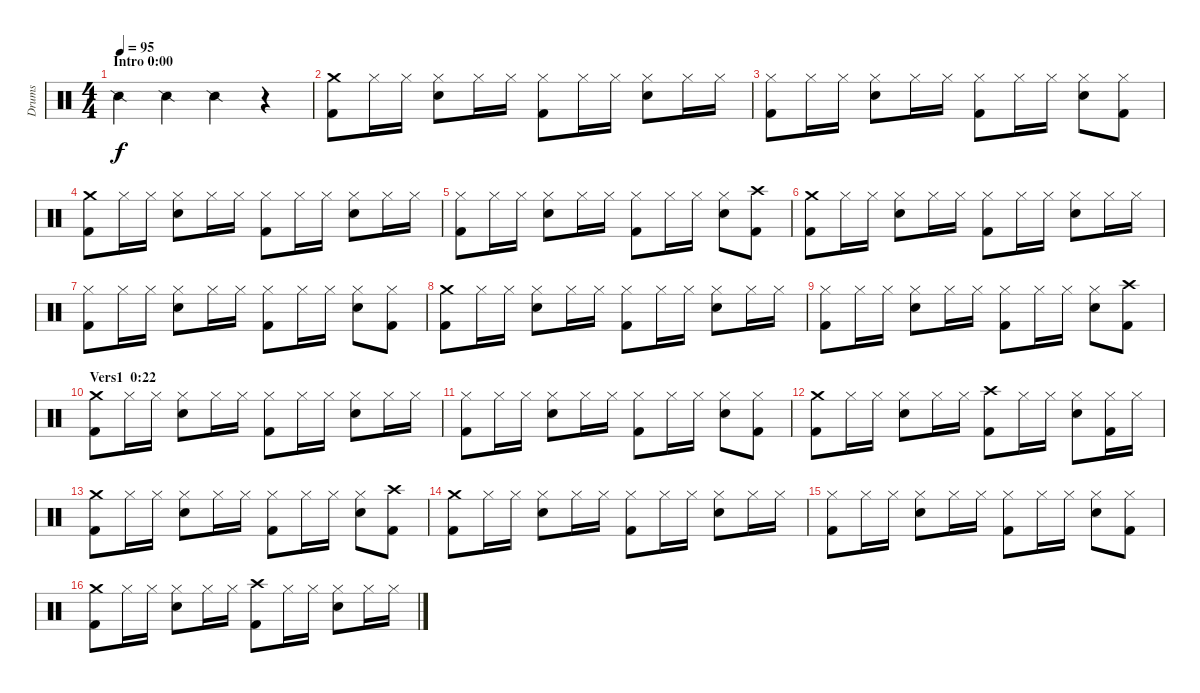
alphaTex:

\track ("Drums" "Drums") {instrument percussion}
\staff {score}
\articulation defaults
\ts (4 4)
\section ("" "Intro 0:00")
\tempo 95
\clef neutral
\ks c "Snare (side stick) 2".4{dy f} "Snare (side stick) 2".4 "Snare (side stick) 2".4
r.4 |
("Crash medium (hit)" "Kick (hit) 2").8 "Hi-Hat (closed)".16 "Hi-Hat (closed)".16 ("Hi-Hat (closed)" "Snare (hit) 2").8 "Hi-Hat (closed)".16 "Hi-Hat (closed)".16 ("Hi-Hat (closed)" "Kick (hit) 2").8 "Hi-Hat (closed)".16 "Hi-Hat (closed)".16 ("Hi-Hat (closed)" "Snare (hit) 2").8 "Hi-Hat (closed)".16 "Hi-Hat (closed)".16 |
("Hi-Hat (closed)" "Kick (hit) 2").8 "Hi-Hat (closed)".16 "Hi-Hat (closed)".16 ("Hi-Hat (closed)" "Snare (hit) 2").8 "Hi-Hat (closed)".16 "Hi-Hat (closed)".16 ("Hi-Hat (closed)" "Kick (hit) 2").8 "Hi-Hat (closed)".16 "Hi-Hat (closed)".16 ("Hi-Hat (closed)" "Snare (hit) 2").8 ("Hi-Hat (closed)" "Kick (hit) 2").8 |
("Crash medium (hit)" "Kick (hit) 2").8 "Hi-Hat (closed)".16 "Hi-Hat (closed)".16 ("Hi-Hat (closed)" "Snare (hit) 2").8 "Hi-Hat (closed)".16 "Hi-Hat (closed)".16 ("Hi-Hat (closed)" "Kick (hit) 2").8 "Hi-Hat (closed)".16 "Hi-Hat (closed)".16 ("Hi-Hat (closed)" "Snare (hit) 2").8 "Hi-Hat (closed)".16 "Hi-Hat (closed)".16 |
("Hi-Hat (closed)" "Kick (hit) 2").8 "Hi-Hat (closed)".16 "Hi-Hat (closed)".16 ("Hi-Hat (closed)" "Snare (hit) 2").8 "Hi-Hat (closed)".16 "Hi-Hat (closed)".16 ("Hi-Hat (closed)" "Kick (hit) 2").8 "Hi-Hat (closed)".16 "Hi-Hat (closed)".16 ("Hi-Hat (closed)" "Snare (hit) 2").8 ("Crash high (hit)" "Kick (hit) 2").8 |
("Crash medium (hit)" "Kick (hit) 2").8 "Hi-Hat (closed)".16 "Hi-Hat (closed)".16 ("Hi-Hat (closed)" "Snare (hit) 2").8 "Hi-Hat (closed)".16 "Hi-Hat (closed)".16 ("Hi-Hat (closed)" "Kick (hit) 2").8 "Hi-Hat (closed)".16 "Hi-Hat (closed)".16 ("Hi-Hat (closed)" "Snare (hit) 2").8 "Hi-Hat (closed)".16 "Hi-Hat (closed)".16 |
("Hi-Hat (closed)" "Kick (hit) 2").8 "Hi-Hat (closed)".16 "Hi-Hat (closed)".16 ("Hi-Hat (closed)" "Snare (hit) 2").8 "Hi-Hat (closed)".16 "Hi-Hat (closed)".16 ("Hi-Hat (closed)" "Kick (hit) 2").8 "Hi-Hat (closed)".16 "Hi-Hat (closed)".16 ("Hi-Hat (closed)" "Snare (hit) 2").8 ("Hi-Hat (closed)" "Kick (hit) 2").8 |
("Crash medium (hit)" "Kick (hit) 2").8 "Hi-Hat (closed)".16 "Hi-Hat (closed)".16 ("Hi-Hat (closed)" "Snare (hit) 2").8 "Hi-Hat (closed)".16 "Hi-Hat (closed)".16 ("Hi-Hat (closed)" "Kick (hit) 2").8 "Hi-Hat (closed)".16 "Hi-Hat (closed)".16 ("Hi-Hat (closed)" "Snare (hit) 2").8 "Hi-Hat (closed)".16 "Hi-Hat (closed)".16 |
("Hi-Hat (closed)" "Kick (hit) 2").8 "Hi-Hat (closed)".16 "Hi-Hat (closed)".16 ("Hi-Hat (closed)" "Snare (hit) 2").8 "Hi-Hat (closed)".16 "Hi-Hat (closed)".16 ("Hi-Hat (closed)" "Kick (hit) 2").8 "Hi-Hat (closed)".16 "Hi-Hat (closed)".16 ("Hi-Hat (closed)" "Snare (hit) 2").8 ("Crash high (hit)" "Kick (hit) 2").8 |
\section ("" "Vers1  0:22")
("Crash medium (hit)" "Kick (hit) 2").8 "Hi-Hat (closed)".16 "Hi-Hat (closed)".16 ("Hi-Hat (closed)" "Snare (hit) 2").8 "Hi-Hat (closed)".16 "Hi-Hat (closed)".16 ("Hi-Hat (closed)" "Kick (hit) 2").8 "Hi-Hat (closed)".16 "Hi-Hat (closed)".16 ("Hi-Hat (closed)" "Snare (hit) 2").8 "Hi-Hat (closed)".16 "Hi-Hat (closed)".16 |
("Hi-Hat (closed)" "Kick (hit) 2").8 "Hi-Hat (closed)".16 "Hi-Hat (closed)".16 ("Hi-Hat (closed)" "Snare (hit) 2").8 "Hi-Hat (closed)".16 "Hi-Hat (closed)".16 ("Hi-Hat (closed)" "Kick (hit) 2").8 "Hi-Hat (closed)".16 "Hi-Hat (closed)".16 ("Hi-Hat (closed)" "Snare (hit) 2").8 ("Hi-Hat (closed)" "Kick (hit) 2").8 |
("Crash medium (hit)" "Kick (hit) 2").8 "Hi-Hat (closed)".16 "Hi-Hat (closed)".16 ("Hi-Hat (closed)" "Snare (hit) 2").8 "Hi-Hat (closed)".16 "Hi-Hat (closed)".16 ("Crash high (hit)" "Kick (hit) 2").8 "Hi-Hat (closed)".16 "Hi-Hat (closed)".16 ("Hi-Hat (closed)" "Snare (hit) 2").8 ("Hi-Hat (closed)" "Kick (hit) 2").16 "Hi-Hat (closed)".16 |
("Crash medium (hit)" "Kick (hit) 2").8 "Hi-Hat (closed)".16 "Hi-Hat (closed)".16 ("Hi-Hat (closed)" "Snare (hit) 2").8 "Hi-Hat (closed)".16 "Hi-Hat (closed)".16 ("Hi-Hat (closed)" "Kick (hit) 2").8 "Hi-Hat (closed)".16 "Hi-Hat (closed)".16 ("Hi-Hat (closed)" "Snare (hit) 2").8 ("Crash high (hit)" "Kick (hit) 2").8 |
("Crash medium (hit)" "Kick (hit) 2").8 "Hi-Hat (closed)".16 "Hi-Hat (closed)".16 ("Hi-Hat (closed)" "Snare (hit) 2").8 "Hi-Hat (closed)".16 "Hi-Hat (closed)".16 ("Hi-Hat (closed)" "Kick (hit) 2").8 "Hi-Hat (closed)".16 "Hi-Hat (closed)".16 ("Hi-Hat (closed)" "Snare (hit) 2").8 "Hi-Hat (closed)".16 "Hi-Hat (closed)".16 |
("Hi-Hat (closed)" "Kick (hit) 2").8 "Hi-Hat (closed)".16 "Hi-Hat (closed)".16 ("Hi-Hat (closed)" "Snare (hit) 2").8 "Hi-Hat (closed)".16 "Hi-Hat (closed)".16 ("Hi-Hat (closed)" "Kick (hit) 2").8 "Hi-Hat (closed)".16 "Hi-Hat (closed)".16 ("Hi-Hat (closed)" "Snare (hit) 2").8 ("Hi-Hat (closed)" "Kick (hit) 2").8 |
("Crash medium (hit)" "Kick (hit) 2").8 "Hi-Hat (closed)".16 "Hi-Hat (closed)".16 ("Hi-Hat (closed)" "Snare (hit) 2").8 "Hi-Hat (closed)".16 "Hi-Hat (closed)".16 ("Crash high (hit)" "Kick (hit) 2").8 "Hi-Hat (closed)".16 "Hi-Hat (closed)".16 ("Hi-Hat (closed)" "Snare (hit) 2").8 "Hi-Hat (closed)".16 "Hi-Hat (closed)".16
